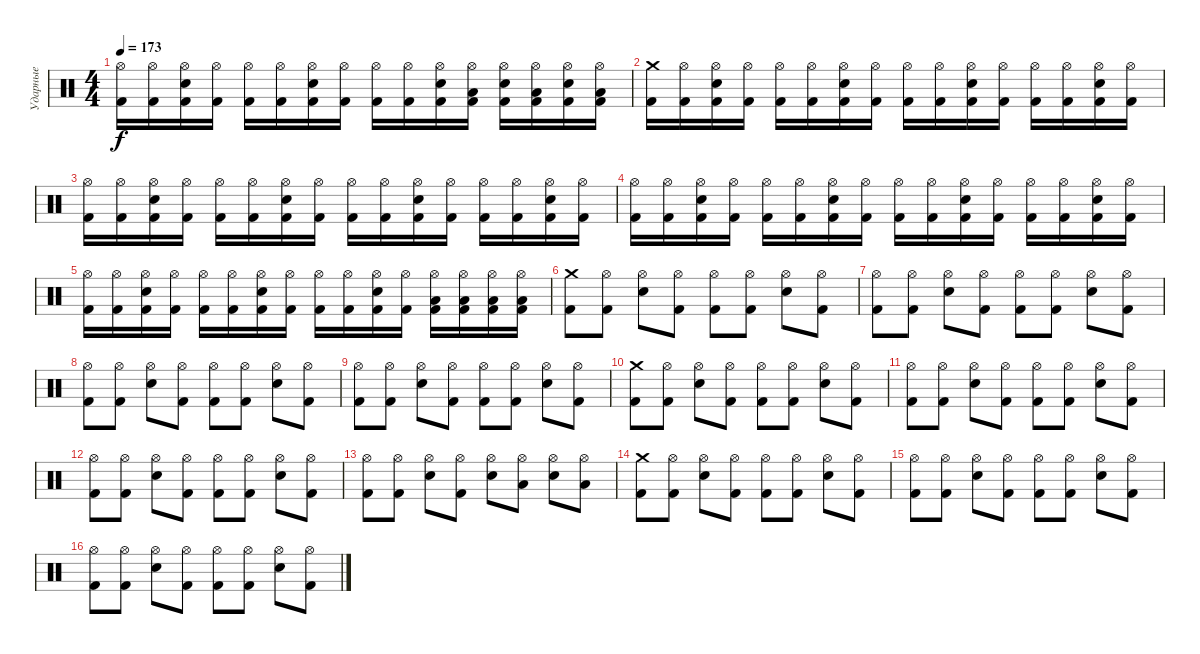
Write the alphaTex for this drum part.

\track ("Ударные" "Ударные") {instrument percussion}
\staff {score}
\articulation defaults
\ts (4 4)
\tempo 173
\clef neutral
\ks c
("Hi-Hat (open)" "Kick (hit) 2").16{dy f} ("Hi-Hat (open)" "Kick (hit) 2").16 ("Hi-Hat (open)" "Electric Snare (hit)" "Kick (hit) 2").16 ("Hi-Hat (open)" "Kick (hit) 2").16 ("Hi-Hat (open)" "Kick (hit) 2").16 ("Hi-Hat (open)" "Kick (hit) 2").16 ("Hi-Hat (open)" "Electric Snare (hit)" "Kick (hit) 2").16 ("Hi-Hat (open)" "Kick (hit) 2").16 ("Hi-Hat (open)" "Kick (hit) 2").16 ("Hi-Hat (open)" "Kick (hit) 2").16 ("Hi-Hat (open)" "Electric Snare (hit)" "Kick (hit) 2").16 ("Hi-Hat (open)" "Low Tom (hit)" "Kick (hit) 2").16 ("Hi-Hat (open)" "Electric Snare (hit)" "Kick (hit) 2").16 ("Hi-Hat (open)" "Low Tom (hit)" "Kick (hit) 2").16 ("Hi-Hat (open)" "Electric Snare (hit)" "Kick (hit) 2").16 ("Hi-Hat (open)" "Low Tom (hit)" "Kick (hit) 2").16 |
("Crash medium (hit)" "Kick (hit) 2").16 ("Hi-Hat (open)" "Kick (hit) 2").16 ("Hi-Hat (open)" "Electric Snare (hit)" "Kick (hit) 2").16 ("Hi-Hat (open)" "Kick (hit) 2").16 ("Hi-Hat (open)" "Kick (hit) 2").16 ("Hi-Hat (open)" "Kick (hit) 2").16 ("Hi-Hat (open)" "Electric Snare (hit)" "Kick (hit) 2").16 ("Hi-Hat (open)" "Kick (hit) 2").16 ("Hi-Hat (open)" "Kick (hit) 2").16 ("Hi-Hat (open)" "Kick (hit) 2").16 ("Hi-Hat (open)" "Electric Snare (hit)" "Kick (hit) 2").16 ("Hi-Hat (open)" "Kick (hit) 2").16 ("Hi-Hat (open)" "Kick (hit) 2").16 ("Hi-Hat (open)" "Kick (hit) 2").16 ("Hi-Hat (open)" "Electric Snare (hit)" "Kick (hit) 2").16 ("Hi-Hat (open)" "Kick (hit) 2").16 |
("Hi-Hat (open)" "Kick (hit) 2").16 ("Hi-Hat (open)" "Kick (hit) 2").16 ("Hi-Hat (open)" "Electric Snare (hit)" "Kick (hit) 2").16 ("Hi-Hat (open)" "Kick (hit) 2").16 ("Hi-Hat (open)" "Kick (hit) 2").16 ("Hi-Hat (open)" "Kick (hit) 2").16 ("Hi-Hat (open)" "Electric Snare (hit)" "Kick (hit) 2").16 ("Hi-Hat (open)" "Kick (hit) 2").16 ("Hi-Hat (open)" "Kick (hit) 2").16 ("Hi-Hat (open)" "Kick (hit) 2").16 ("Hi-Hat (open)" "Electric Snare (hit)" "Kick (hit) 2").16 ("Hi-Hat (open)" "Kick (hit) 2").16 ("Hi-Hat (open)" "Kick (hit) 2").16 ("Hi-Hat (open)" "Kick (hit) 2").16 ("Hi-Hat (open)" "Electric Snare (hit)" "Kick (hit) 2").16 ("Hi-Hat (open)" "Kick (hit) 2").16 |
("Hi-Hat (open)" "Kick (hit) 2").16 ("Hi-Hat (open)" "Kick (hit) 2").16 ("Hi-Hat (open)" "Electric Snare (hit)" "Kick (hit) 2").16 ("Hi-Hat (open)" "Kick (hit) 2").16 ("Hi-Hat (open)" "Kick (hit) 2").16 ("Hi-Hat (open)" "Kick (hit) 2").16 ("Hi-Hat (open)" "Electric Snare (hit)" "Kick (hit) 2").16 ("Hi-Hat (open)" "Kick (hit) 2").16 ("Hi-Hat (open)" "Kick (hit) 2").16 ("Hi-Hat (open)" "Kick (hit) 2").16 ("Hi-Hat (open)" "Electric Snare (hit)" "Kick (hit) 2").16 ("Hi-Hat (open)" "Kick (hit) 2").16 ("Hi-Hat (open)" "Kick (hit) 2").16 ("Hi-Hat (open)" "Kick (hit) 2").16 ("Hi-Hat (open)" "Electric Snare (hit)" "Kick (hit) 2").16 ("Hi-Hat (open)" "Kick (hit) 2").16 |
("Hi-Hat (open)" "Kick (hit) 2").16 ("Hi-Hat (open)" "Kick (hit) 2").16 ("Hi-Hat (open)" "Electric Snare (hit)" "Kick (hit) 2").16 ("Hi-Hat (open)" "Kick (hit) 2").16 ("Hi-Hat (open)" "Kick (hit) 2").16 ("Hi-Hat (open)" "Kick (hit) 2").16 ("Hi-Hat (open)" "Electric Snare (hit)" "Kick (hit) 2").16 ("Hi-Hat (open)" "Kick (hit) 2").16 ("Hi-Hat (open)" "Kick (hit) 2").16 ("Hi-Hat (open)" "Kick (hit) 2").16 ("Hi-Hat (open)" "Electric Snare (hit)" "Kick (hit) 2").16 ("Hi-Hat (open)" "Kick (hit) 2").16 ("Hi-Hat (open)" "Low Tom (hit)" "Kick (hit) 2").16 ("Hi-Hat (open)" "Low Tom (hit)" "Kick (hit) 2").16 ("Hi-Hat (open)" "Low Tom (hit)" "Kick (hit) 2").16 ("Hi-Hat (open)" "Low Tom (hit)" "Kick (hit) 2").16 |
("Crash medium (hit)" "Kick (hit) 2").8 ("Hi-Hat (open)" "Kick (hit) 2").8 ("Hi-Hat (open)" "Electric Snare (hit)").8 ("Hi-Hat (open)" "Kick (hit) 2").8 ("Hi-Hat (open)" "Kick (hit) 2").8 ("Hi-Hat (open)" "Kick (hit) 2").8 ("Hi-Hat (open)" "Electric Snare (hit)").8 ("Hi-Hat (open)" "Kick (hit) 2").8 |
("Hi-Hat (open)" "Kick (hit) 2").8 ("Hi-Hat (open)" "Kick (hit) 2").8 ("Hi-Hat (open)" "Electric Snare (hit)").8 ("Hi-Hat (open)" "Kick (hit) 2").8 ("Hi-Hat (open)" "Kick (hit) 2").8 ("Hi-Hat (open)" "Kick (hit) 2").8 ("Hi-Hat (open)" "Electric Snare (hit)").8 ("Hi-Hat (open)" "Kick (hit) 2").8 |
("Hi-Hat (open)" "Kick (hit) 2").8 ("Hi-Hat (open)" "Kick (hit) 2").8 ("Hi-Hat (open)" "Electric Snare (hit)").8 ("Hi-Hat (open)" "Kick (hit) 2").8 ("Hi-Hat (open)" "Kick (hit) 2").8 ("Hi-Hat (open)" "Kick (hit) 2").8 ("Hi-Hat (open)" "Electric Snare (hit)").8 ("Hi-Hat (open)" "Kick (hit) 2").8 |
("Hi-Hat (open)" "Kick (hit) 2").8 ("Hi-Hat (open)" "Kick (hit) 2").8 ("Hi-Hat (open)" "Electric Snare (hit)").8 ("Hi-Hat (open)" "Kick (hit) 2").8 ("Hi-Hat (open)" "Kick (hit) 2").8 ("Hi-Hat (open)" "Kick (hit) 2").8 ("Hi-Hat (open)" "Electric Snare (hit)").8 ("Hi-Hat (open)" "Kick (hit) 2").8 |
("Crash medium (hit)" "Kick (hit) 2").8 ("Hi-Hat (open)" "Kick (hit) 2").8 ("Hi-Hat (open)" "Electric Snare (hit)").8 ("Hi-Hat (open)" "Kick (hit) 2").8 ("Hi-Hat (open)" "Kick (hit) 2").8 ("Hi-Hat (open)" "Kick (hit) 2").8 ("Hi-Hat (open)" "Electric Snare (hit)").8 ("Hi-Hat (open)" "Kick (hit) 2").8 |
("Hi-Hat (open)" "Kick (hit) 2").8 ("Hi-Hat (open)" "Kick (hit) 2").8 ("Hi-Hat (open)" "Electric Snare (hit)").8 ("Hi-Hat (open)" "Kick (hit) 2").8 ("Hi-Hat (open)" "Kick (hit) 2").8 ("Hi-Hat (open)" "Kick (hit) 2").8 ("Hi-Hat (open)" "Electric Snare (hit)").8 ("Hi-Hat (open)" "Kick (hit) 2").8 |
("Hi-Hat (open)" "Kick (hit) 2").8 ("Hi-Hat (open)" "Kick (hit) 2").8 ("Hi-Hat (open)" "Electric Snare (hit)").8 ("Hi-Hat (open)" "Kick (hit) 2").8 ("Hi-Hat (open)" "Kick (hit) 2").8 ("Hi-Hat (open)" "Kick (hit) 2").8 ("Hi-Hat (open)" "Electric Snare (hit)").8 ("Hi-Hat (open)" "Kick (hit) 2").8 |
("Hi-Hat (open)" "Kick (hit) 2").8 ("Hi-Hat (open)" "Kick (hit) 2").8 ("Hi-Hat (open)" "Electric Snare (hit)").8 ("Hi-Hat (open)" "Kick (hit) 2").8 ("Hi-Hat (open)" "Electric Snare (hit)").8 ("Hi-Hat (open)" "Low Tom (hit)").8 ("Hi-Hat (open)" "Electric Snare (hit)").8 ("Hi-Hat (open)" "Low Tom (hit)").8 |
("Crash medium (hit)" "Kick (hit) 2").8 ("Hi-Hat (open)" "Kick (hit) 2").8 ("Hi-Hat (open)" "Electric Snare (hit)").8 ("Hi-Hat (open)" "Kick (hit) 2").8 ("Hi-Hat (open)" "Kick (hit) 2").8 ("Hi-Hat (open)" "Kick (hit) 2").8 ("Hi-Hat (open)" "Electric Snare (hit)").8 ("Hi-Hat (open)" "Kick (hit) 2").8 |
("Hi-Hat (open)" "Kick (hit) 2").8 ("Hi-Hat (open)" "Kick (hit) 2").8 ("Hi-Hat (open)" "Electric Snare (hit)").8 ("Hi-Hat (open)" "Kick (hit) 2").8 ("Hi-Hat (open)" "Kick (hit) 2").8 ("Hi-Hat (open)" "Kick (hit) 2").8 ("Hi-Hat (open)" "Electric Snare (hit)").8 ("Hi-Hat (open)" "Kick (hit) 2").8 |
("Hi-Hat (open)" "Kick (hit) 2").8 ("Hi-Hat (open)" "Kick (hit) 2").8 ("Hi-Hat (open)" "Electric Snare (hit)").8 ("Hi-Hat (open)" "Kick (hit) 2").8 ("Hi-Hat (open)" "Kick (hit) 2").8 ("Hi-Hat (open)" "Kick (hit) 2").8 ("Hi-Hat (open)" "Electric Snare (hit)").8 ("Hi-Hat (open)" "Kick (hit) 2").8
